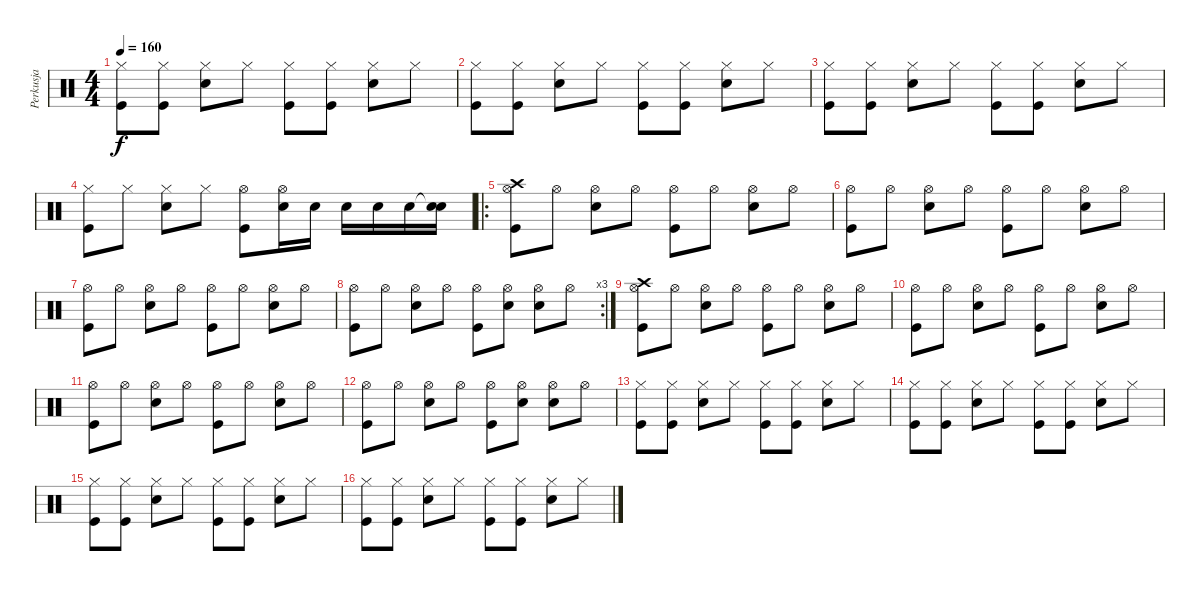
\track ("Perkusja" "Perkusja") {instrument percussion}
\staff {score}
\articulation defaults
\ts (4 4)
\tempo 160
\clef neutral
\ks c
("Hi-Hat (closed)" "Kick (hit)").8{dy f} ("Hi-Hat (closed)" "Kick (hit)").8 ("Hi-Hat (closed)" "Electric Snare (hit)").8 "Hi-Hat (closed)".8 ("Hi-Hat (closed)" "Kick (hit)").8 ("Hi-Hat (closed)" "Kick (hit)").8 ("Hi-Hat (closed)" "Electric Snare (hit)").8 "Hi-Hat (closed)".8 |
("Hi-Hat (closed)" "Kick (hit)").8 ("Hi-Hat (closed)" "Kick (hit)").8 ("Hi-Hat (closed)" "Electric Snare (hit)").8 "Hi-Hat (closed)".8 ("Hi-Hat (closed)" "Kick (hit)").8 ("Hi-Hat (closed)" "Kick (hit)").8 ("Hi-Hat (closed)" "Electric Snare (hit)").8 "Hi-Hat (closed)".8 |
("Hi-Hat (closed)" "Kick (hit)").8 ("Hi-Hat (closed)" "Kick (hit)").8 ("Hi-Hat (closed)" "Electric Snare (hit)").8 "Hi-Hat (closed)".8 ("Hi-Hat (closed)" "Kick (hit)").8 ("Hi-Hat (closed)" "Kick (hit)").8 ("Hi-Hat (closed)" "Electric Snare (hit)").8 "Hi-Hat (closed)".8 |
("Hi-Hat (closed)" "Kick (hit)").8 "Hi-Hat (closed)".8 ("Hi-Hat (closed)" "Electric Snare (hit)").8 "Hi-Hat (closed)".8 ("Hi-Hat (open)" "Kick (hit)").8 ("Hi-Hat (open)" "Electric Snare (hit)").16 "Electric Snare (hit)".16 "Electric Snare (hit)".16 "Electric Snare (hit)".16 "Electric Snare (hit)".16 ("Snare (hit)"{t} "Electric Snare (hit)").16 |
\ro
("Hi-Hat (open)" "Crash high (hit)" "Kick (hit)").8 "Hi-Hat (open)".8 ("Hi-Hat (open)" "Electric Snare (hit)").8 "Hi-Hat (open)".8 ("Hi-Hat (open)" "Kick (hit)").8 "Hi-Hat (open)".8 ("Hi-Hat (open)" "Electric Snare (hit)").8 "Hi-Hat (open)".8 |
("Hi-Hat (open)" "Kick (hit)").8 "Hi-Hat (open)".8 ("Hi-Hat (open)" "Electric Snare (hit)").8 "Hi-Hat (open)".8 ("Hi-Hat (open)" "Kick (hit)").8 "Hi-Hat (open)".8 ("Hi-Hat (open)" "Electric Snare (hit)").8 "Hi-Hat (open)".8 |
("Hi-Hat (open)" "Kick (hit)").8 "Hi-Hat (open)".8 ("Hi-Hat (open)" "Electric Snare (hit)").8 "Hi-Hat (open)".8 ("Hi-Hat (open)" "Kick (hit)").8 "Hi-Hat (open)".8 ("Hi-Hat (open)" "Electric Snare (hit)").8 "Hi-Hat (open)".8 |
\rc 3
("Hi-Hat (open)" "Kick (hit)").8 "Hi-Hat (open)".8 ("Hi-Hat (open)" "Electric Snare (hit)").8 "Hi-Hat (open)".8 ("Hi-Hat (open)" "Kick (hit)").8 ("Hi-Hat (open)" "Electric Snare (hit)").8 ("Hi-Hat (open)" "Electric Snare (hit)").8 "Hi-Hat (open)".8 |
("Hi-Hat (open)" "Crash high (hit)" "Kick (hit)").8 "Hi-Hat (open)".8 ("Hi-Hat (open)" "Electric Snare (hit)").8 "Hi-Hat (open)".8 ("Hi-Hat (open)" "Kick (hit)").8 "Hi-Hat (open)".8 ("Hi-Hat (open)" "Electric Snare (hit)").8 "Hi-Hat (open)".8 |
("Hi-Hat (open)" "Kick (hit)").8 "Hi-Hat (open)".8 ("Hi-Hat (open)" "Electric Snare (hit)").8 "Hi-Hat (open)".8 ("Hi-Hat (open)" "Kick (hit)").8 "Hi-Hat (open)".8 ("Hi-Hat (open)" "Electric Snare (hit)").8 "Hi-Hat (open)".8 |
("Hi-Hat (open)" "Kick (hit)").8 "Hi-Hat (open)".8 ("Hi-Hat (open)" "Electric Snare (hit)").8 "Hi-Hat (open)".8 ("Hi-Hat (open)" "Kick (hit)").8 "Hi-Hat (open)".8 ("Hi-Hat (open)" "Electric Snare (hit)").8 "Hi-Hat (open)".8 |
("Hi-Hat (open)" "Kick (hit)").8 "Hi-Hat (open)".8 ("Hi-Hat (open)" "Electric Snare (hit)").8 "Hi-Hat (open)".8 ("Hi-Hat (open)" "Kick (hit)").8 ("Hi-Hat (open)" "Electric Snare (hit)").8 ("Hi-Hat (open)" "Electric Snare (hit)").8 "Hi-Hat (open)".8 |
("Hi-Hat (closed)" "Kick (hit)").8 ("Hi-Hat (closed)" "Kick (hit)").8 ("Hi-Hat (closed)" "Electric Snare (hit)").8 "Hi-Hat (closed)".8 ("Hi-Hat (closed)" "Kick (hit)").8 ("Hi-Hat (closed)" "Kick (hit)").8 ("Hi-Hat (closed)" "Electric Snare (hit)").8 "Hi-Hat (closed)".8 |
("Hi-Hat (closed)" "Kick (hit)").8 ("Hi-Hat (closed)" "Kick (hit)").8 ("Hi-Hat (closed)" "Electric Snare (hit)").8 "Hi-Hat (closed)".8 ("Hi-Hat (closed)" "Kick (hit)").8 ("Hi-Hat (closed)" "Kick (hit)").8 ("Hi-Hat (closed)" "Electric Snare (hit)").8 "Hi-Hat (closed)".8 |
("Hi-Hat (closed)" "Kick (hit)").8 ("Hi-Hat (closed)" "Kick (hit)").8 ("Hi-Hat (closed)" "Electric Snare (hit)").8 "Hi-Hat (closed)".8 ("Hi-Hat (closed)" "Kick (hit)").8 ("Hi-Hat (closed)" "Kick (hit)").8 ("Hi-Hat (closed)" "Electric Snare (hit)").8 "Hi-Hat (closed)".8 |
("Hi-Hat (closed)" "Kick (hit)").8 ("Hi-Hat (closed)" "Kick (hit)").8 ("Hi-Hat (closed)" "Electric Snare (hit)").8 "Hi-Hat (closed)".8 ("Hi-Hat (closed)" "Kick (hit)").8 ("Hi-Hat (closed)" "Kick (hit)").8 ("Hi-Hat (closed)" "Electric Snare (hit)").8 "Hi-Hat (closed)".8
